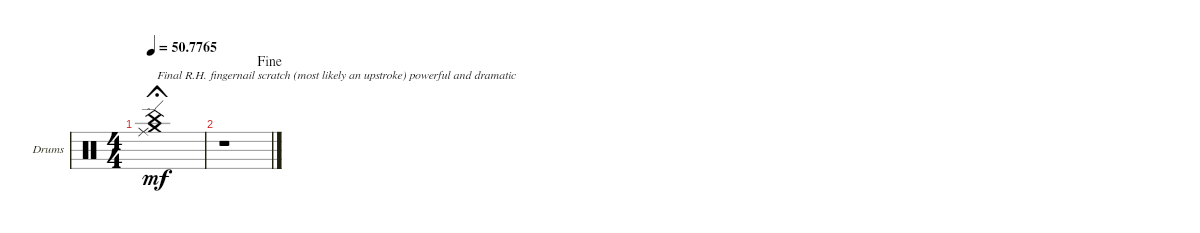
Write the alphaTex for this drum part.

\defaultSystemsLayout 4
\bracketExtendMode groupsimilarinstruments
\firstSystemTrackNameOrientation horizontal
\otherSystemsTrackNameOrientation horizontal
\track ("Guitar Percussion" "Drums") {instrument percussion}
\staff {score}
\articulation defaults
\ts (4 4)
\tempo
50.7765
\accidentals auto
\clef neutral
\ottava regular
\simile none
\ks c
("Crash medium (hit)" "China (hit)" "Ride (edge)").1{txt "Final R.H. fingernail scratch (most likely an upstroke) powerful and dramatic" dy mf fermata (short 0)} |
\jump fine
r.1
